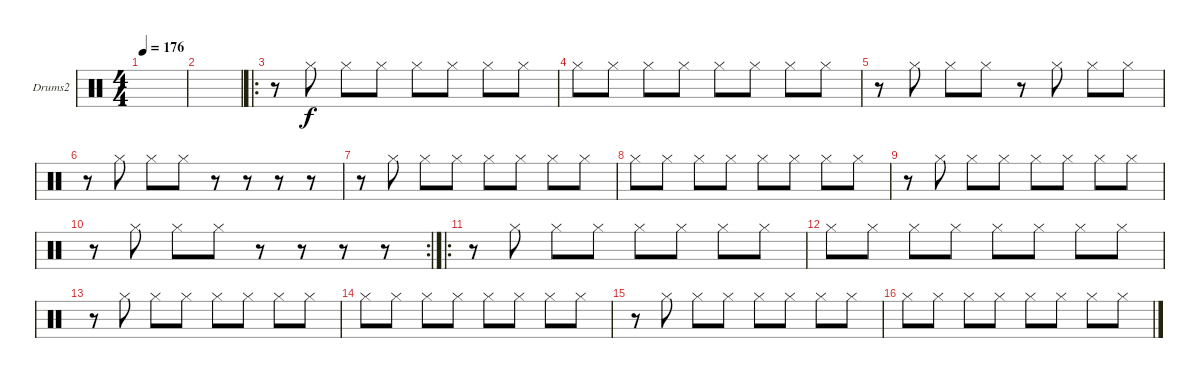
\defaultSystemsLayout 4
\bracketExtendMode groupsimilarinstruments
\firstSystemTrackNameOrientation horizontal
\otherSystemsTrackNameOrientation horizontal
\track ("Drums2" "Drums2") {instrument percussion}
\staff {score}
\articulation defaults
\ts (4 4)
\tempo 176
\clef neutral
\scale
0.333333
\ks c
|
\scale
0.333333 |
\ro
\scale
0.377778 r.8 "Hi-Hat (closed)".8 "Hi-Hat (closed)".8 "Hi-Hat (closed)".8 "Hi-Hat (closed)".8 "Hi-Hat (closed)".8 "Hi-Hat (closed)".8 "Hi-Hat (closed)".8 |
\scale
0.311111 "Hi-Hat (closed)".8 "Hi-Hat (closed)".8 "Hi-Hat (closed)".8 "Hi-Hat (closed)".8 "Hi-Hat (closed)".8 "Hi-Hat (closed)".8 "Hi-Hat (closed)".8 "Hi-Hat (closed)".8 |
\scale
0.311111 r.8 "Hi-Hat (closed)".8 "Hi-Hat (closed)".8 "Hi-Hat (closed)".8 r.8 "Hi-Hat (closed)".8 "Hi-Hat (closed)".8 "Hi-Hat (closed)".8 |
\scale
0.333333 r.8 "Hi-Hat (closed)".8 "Hi-Hat (closed)".8 "Hi-Hat (closed)".8 r.8 r.8 r.8 r.8 |
\scale
0.333333 r.8 "Hi-Hat (closed)".8 "Hi-Hat (closed)".8 "Hi-Hat (closed)".8 "Hi-Hat (closed)".8 "Hi-Hat (closed)".8 "Hi-Hat (closed)".8 "Hi-Hat (closed)".8 |
\scale
0.333333 "Hi-Hat (closed)".8 "Hi-Hat (closed)".8 "Hi-Hat (closed)".8 "Hi-Hat (closed)".8 "Hi-Hat (closed)".8 "Hi-Hat (closed)".8 "Hi-Hat (closed)".8 "Hi-Hat (closed)".8 |
\scale
0.301075 r.8 "Hi-Hat (closed)".8 "Hi-Hat (closed)".8 "Hi-Hat (closed)".8 "Hi-Hat (closed)".8 "Hi-Hat (closed)".8 "Hi-Hat (closed)".8 "Hi-Hat (closed)".8 |
\rc 2
\scale
0.333333 r.8 "Hi-Hat (closed)".8 "Hi-Hat (closed)".8 "Hi-Hat (closed)".8 r.8 r.8 r.8 r.8 |
\ro
\scale
0.365591 r.8 "Hi-Hat (closed)".8 "Hi-Hat (closed)".8 "Hi-Hat (closed)".8 "Hi-Hat (closed)".8 "Hi-Hat (closed)".8 "Hi-Hat (closed)".8 "Hi-Hat (closed)".8 |
\scale
0.333333 "Hi-Hat (closed)".8 "Hi-Hat (closed)".8 "Hi-Hat (closed)".8 "Hi-Hat (closed)".8 "Hi-Hat (closed)".8 "Hi-Hat (closed)".8 "Hi-Hat (closed)".8 "Hi-Hat (closed)".8 |
\scale
0.333333 r.8 "Hi-Hat (closed)".8 "Hi-Hat (closed)".8 "Hi-Hat (closed)".8 "Hi-Hat (closed)".8 "Hi-Hat (closed)".8 "Hi-Hat (closed)".8 "Hi-Hat (closed)".8 |
\scale
0.333333 "Hi-Hat (closed)".8 "Hi-Hat (closed)".8 "Hi-Hat (closed)".8 "Hi-Hat (closed)".8 "Hi-Hat (closed)".8 "Hi-Hat (closed)".8 "Hi-Hat (closed)".8 "Hi-Hat (closed)".8 |
\scale
0.333333 r.8 "Hi-Hat (closed)".8 "Hi-Hat (closed)".8 "Hi-Hat (closed)".8 "Hi-Hat (closed)".8 "Hi-Hat (closed)".8 "Hi-Hat (closed)".8 "Hi-Hat (closed)".8 |
\scale
0.333333 "Hi-Hat (closed)".8 "Hi-Hat (closed)".8 "Hi-Hat (closed)".8 "Hi-Hat (closed)".8 "Hi-Hat (closed)".8 "Hi-Hat (closed)".8 "Hi-Hat (closed)".8 "Hi-Hat (closed)".8
